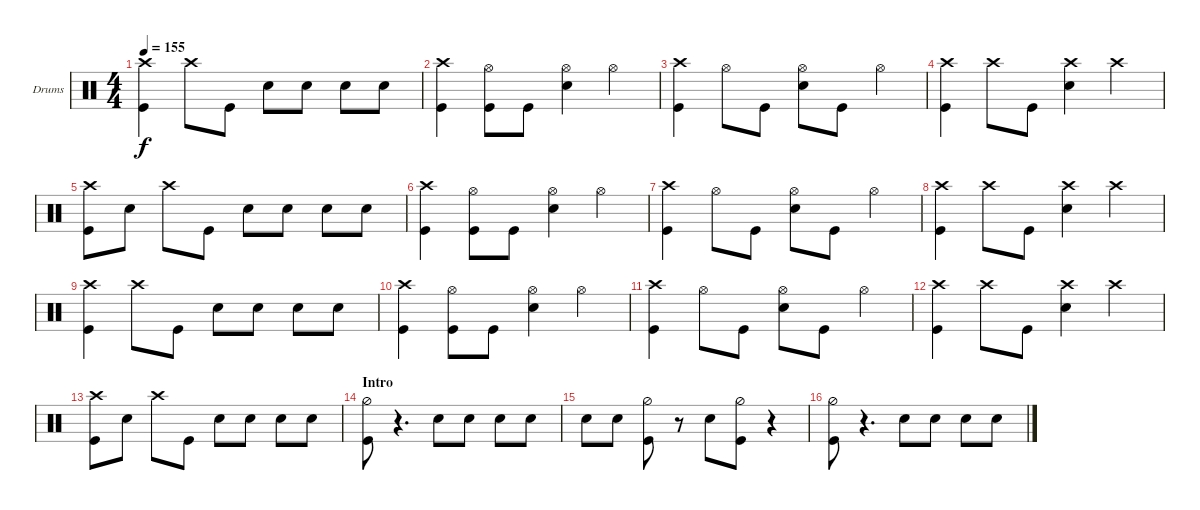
\defaultSystemsLayout 4
\bracketExtendMode groupsimilarinstruments
\firstSystemTrackNameOrientation horizontal
\otherSystemsTrackNameOrientation horizontal
\track ("Ben Tatcher" "Drums") {instrument percussion}
\staff {score}
\articulation defaults
\ts (4 4)
\tempo 155
\clef neutral
\ks c
("Kick (hit)" "Crash high (hit)").4{dy f} "Crash high (hit)".8 "Kick (hit)".8 "Snare (hit) 2".8 "Snare (hit) 2".8 "Snare (hit) 2".8 "Snare (hit) 2".8 |
("Kick (hit)" "Crash high (hit)").4 ("Kick (hit)" "Hi-Hat (open)").8 "Kick (hit)".8 ("Hi-Hat (open)" "Snare (hit) 2").4 "Hi-Hat (open)".4 |
("Crash high (hit)" "Kick (hit)").4 "Hi-Hat (open)".8 "Kick (hit)".8 ("Snare (hit) 2" "Hi-Hat (open)").8 "Kick (hit)".8 "Hi-Hat (open)".4 |
("Kick (hit)" "Crash high (hit)").4 "Crash high (hit)".8 "Kick (hit)".8 ("Snare (hit) 2" "Crash high (hit)").4 "Crash high (hit)".4 |
("Kick (hit)" "Crash high (hit)").8 "Snare (hit) 2".8 "Crash high (hit)".8 "Kick (hit)".8 "Snare (hit) 2".8 "Snare (hit) 2".8 "Snare (hit) 2".8 "Snare (hit) 2".8 |
("Kick (hit)" "Crash high (hit)").4 ("Kick (hit)" "Hi-Hat (open)").8 "Kick (hit)".8 ("Hi-Hat (open)" "Snare (hit) 2").4 "Hi-Hat (open)".4 |
("Crash high (hit)" "Kick (hit)").4 "Hi-Hat (open)".8 "Kick (hit)".8 ("Snare (hit) 2" "Hi-Hat (open)").8 "Kick (hit)".8 "Hi-Hat (open)".4 |
("Kick (hit)" "Crash high (hit)").4 "Crash high (hit)".8 "Kick (hit)".8 ("Snare (hit) 2" "Crash high (hit)").4 "Crash high (hit)".4 |
("Kick (hit)" "Crash high (hit)").4 "Crash high (hit)".8 "Kick (hit)".8 "Snare (hit) 2".8 "Snare (hit) 2".8 "Snare (hit) 2".8 "Snare (hit) 2".8 |
("Kick (hit)" "Crash high (hit)").4 ("Kick (hit)" "Hi-Hat (open)").8 "Kick (hit)".8 ("Hi-Hat (open)" "Snare (hit) 2").4 "Hi-Hat (open)".4 |
("Crash high (hit)" "Kick (hit)").4 "Hi-Hat (open)".8 "Kick (hit)".8 ("Snare (hit) 2" "Hi-Hat (open)").8 "Kick (hit)".8 "Hi-Hat (open)".4 |
("Kick (hit)" "Crash high (hit)").4 "Crash high (hit)".8 "Kick (hit)".8 ("Snare (hit) 2" "Crash high (hit)").4 "Crash high (hit)".4 |
("Kick (hit)" "Crash high (hit)").8 "Snare (hit) 2".8 "Crash high (hit)".8 "Kick (hit)".8 "Snare (hit) 2".8 "Snare (hit) 2".8 "Snare (hit) 2".8 "Snare (hit) 2".8 |
\section ("" "Intro")
("Hi-Hat (half)" "Kick (hit)").8 r.4{d} "Snare (hit) 2".8 "Snare (hit) 2".8 "Snare (hit) 2".8 "Snare (hit) 2".8 |
"Snare (hit) 2".8 "Snare (hit) 2".8 ("Kick (hit)" "Hi-Hat (half)").8 r.8 "Snare (hit) 2".8 ("Kick (hit)" "Hi-Hat (half)").8 r.4 |
("Hi-Hat (half)" "Kick (hit)").8 r.4{d} "Snare (hit) 2".8 "Snare (hit) 2".8 "Snare (hit) 2".8 "Snare (hit) 2".8
